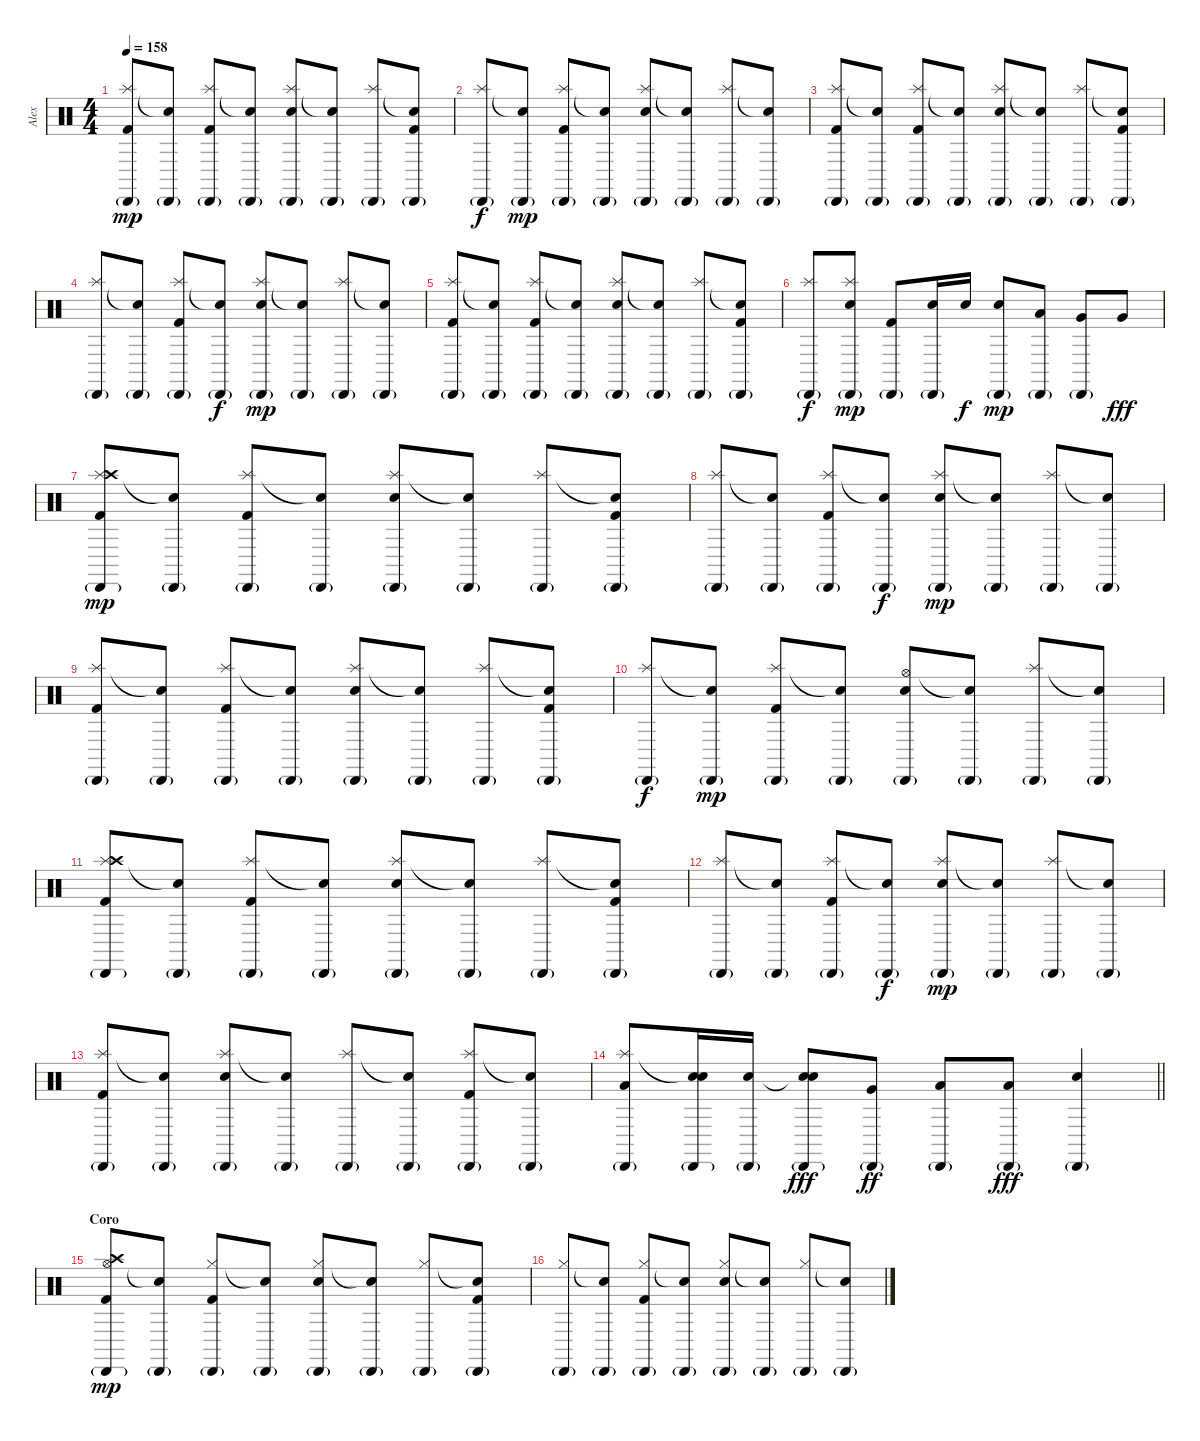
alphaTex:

\track ("Alex" "Alex") {instrument percussion}
\staff {score}
\articulation defaults
\ts (4 4)
\tempo 158
\clef neutral
\ks c
("Splash (hit)" "Kick (hit) 2" "Cabasa (hit)"{g}).8{dy mp} ("Snare (hit)"{t} "Cabasa (hit)"{g}).8 ("Splash (hit)" "Kick (hit) 2" "Cabasa (hit)"{g}).8 ("Snare (hit)"{t} "Cabasa (hit)"{g}).8 ("Splash (hit)" "Electric Snare (hit)" "Cabasa (hit)"{g}).8 ("Snare (hit)"{t} "Cabasa (hit)"{g}).8 ("Splash (hit)" "Cabasa (hit)"{g}).8 ("Snare (hit)"{t} "Kick (hit) 2" "Cabasa (hit)"{g}).8 |
("Splash (hit)" "Cabasa (hit)"{g}).8{dy f} ("Snare (hit)"{t} "Cabasa (hit)"{g}).8{dy mp} ("Splash (hit)" "Kick (hit) 2" "Cabasa (hit)"{g}).8 ("Snare (hit)"{t} "Cabasa (hit)"{g}).8 ("Splash (hit)" "Electric Snare (hit)" "Cabasa (hit)"{g}).8 ("Snare (hit)"{t} "Cabasa (hit)"{g}).8 ("Splash (hit)" "Cabasa (hit)"{g}).8 ("Snare (hit)"{t} "Cabasa (hit)"{g}).8 |
("Splash (hit)" "Kick (hit) 2" "Cabasa (hit)"{g}).8 ("Snare (hit)"{t} "Cabasa (hit)"{g}).8 ("Splash (hit)" "Kick (hit) 2" "Cabasa (hit)"{g}).8 ("Snare (hit)"{t} "Cabasa (hit)"{g}).8 ("Splash (hit)" "Electric Snare (hit)" "Cabasa (hit)"{g}).8 ("Snare (hit)"{t} "Cabasa (hit)"{g}).8 ("Splash (hit)" "Cabasa (hit)"{g}).8 ("Snare (hit)"{t} "Kick (hit) 2" "Cabasa (hit)"{g}).8 |
("Splash (hit)" "Cabasa (hit)"{g}).8 ("Snare (hit)"{t} "Cabasa (hit)"{g}).8 ("Splash (hit)" "Kick (hit) 2" "Cabasa (hit)"{g}).8 ("Snare (hit)"{t} "Cabasa (hit)"{g}).8{dy f} ("Splash (hit)" "Electric Snare (hit)" "Cabasa (hit)"{g}).8{dy mp} ("Snare (hit)"{t} "Cabasa (hit)"{g}).8 ("Splash (hit)" "Cabasa (hit)"{g}).8 ("Snare (hit)"{t} "Cabasa (hit)"{g}).8 |
("Splash (hit)" "Kick (hit) 2" "Cabasa (hit)"{g}).8 ("Snare (hit)"{t} "Cabasa (hit)"{g}).8 ("Splash (hit)" "Kick (hit) 2" "Cabasa (hit)"{g}).8 ("Snare (hit)"{t} "Cabasa (hit)"{g}).8 ("Splash (hit)" "Electric Snare (hit)" "Cabasa (hit)"{g}).8 ("Snare (hit)"{t} "Cabasa (hit)"{g}).8 ("Splash (hit)" "Cabasa (hit)"{g}).8 ("Snare (hit)"{t} "Kick (hit) 2" "Cabasa (hit)"{g}).8 |
("Splash (hit)" "Cabasa (hit)"{g}).8{dy f} ("Splash (hit)" "Electric Snare (hit)" "Cabasa (hit)"{g}).8{dy mp} ("Kick (hit) 2" "Cabasa (hit)"{g}).8 ("Electric Snare (hit)" "Cabasa (hit)"{g}).16 "Electric Snare (hit)".16{dy f} ("Electric Snare (hit)" "Cabasa (hit)"{g}).8{dy mp} ("Low Tom (hit)" "Cabasa (hit)"{g}).8 ("Very Low Tom (hit)" "Cabasa (hit)"{g}).8 "Very Low Tom (hit)".8{dy fff} |
("Splash (hit)" "Kick (hit) 2" "Crash high (hit)" "Cabasa (hit)"{g}).8{dy mp} ("Snare (hit)"{t} "Cabasa (hit)"{g}).8 ("Splash (hit)" "Kick (hit) 2" "Cabasa (hit)"{g}).8 ("Snare (hit)"{t} "Cabasa (hit)"{g}).8 ("Splash (hit)" "Electric Snare (hit)" "Cabasa (hit)"{g}).8 ("Snare (hit)"{t} "Cabasa (hit)"{g}).8 ("Splash (hit)" "Cabasa (hit)"{g}).8 ("Snare (hit)"{t} "Kick (hit) 2" "Cabasa (hit)"{g}).8 |
("Splash (hit)" "Cabasa (hit)"{g}).8 ("Snare (hit)"{t} "Cabasa (hit)"{g}).8 ("Splash (hit)" "Kick (hit) 2" "Cabasa (hit)"{g}).8 ("Snare (hit)"{t} "Cabasa (hit)"{g}).8{dy f} ("Splash (hit)" "Electric Snare (hit)" "Cabasa (hit)"{g}).8{dy mp} ("Snare (hit)"{t} "Cabasa (hit)"{g}).8 ("Splash (hit)" "Cabasa (hit)"{g}).8 ("Snare (hit)"{t} "Cabasa (hit)"{g}).8 |
("Splash (hit)" "Kick (hit) 2" "Cabasa (hit)"{g}).8 ("Snare (hit)"{t} "Cabasa (hit)"{g}).8 ("Splash (hit)" "Kick (hit) 2" "Cabasa (hit)"{g}).8 ("Snare (hit)"{t} "Cabasa (hit)"{g}).8 ("Splash (hit)" "Electric Snare (hit)" "Cabasa (hit)"{g}).8 ("Snare (hit)"{t} "Cabasa (hit)"{g}).8 ("Splash (hit)" "Cabasa (hit)"{g}).8 ("Snare (hit)"{t} "Kick (hit) 2" "Cabasa (hit)"{g}).8 |
("Splash (hit)" "Cabasa (hit)"{g}).8{dy f} ("Snare (hit)"{t} "Cabasa (hit)"{g}).8{dy mp} ("Splash (hit)" "Kick (hit) 2" "Cabasa (hit)"{g}).8 ("Snare (hit)"{t} "Cabasa (hit)"{g}).8 ("Hi-Hat (open)" "Electric Snare (hit)" "Cabasa (hit)"{g}).8 ("Snare (hit)"{t} "Cabasa (hit)"{g}).8 ("Splash (hit)" "Cabasa (hit)"{g}).8 ("Snare (hit)"{t} "Cabasa (hit)"{g}).8 |
("Splash (hit)" "Kick (hit) 2" "Crash high (hit)" "Cabasa (hit)"{g}).8 ("Snare (hit)"{t} "Cabasa (hit)"{g}).8 ("Splash (hit)" "Kick (hit) 2" "Cabasa (hit)"{g}).8 ("Snare (hit)"{t} "Cabasa (hit)"{g}).8 ("Splash (hit)" "Electric Snare (hit)" "Cabasa (hit)"{g}).8 ("Snare (hit)"{t} "Cabasa (hit)"{g}).8 ("Splash (hit)" "Cabasa (hit)"{g}).8 ("Snare (hit)"{t} "Kick (hit) 2" "Cabasa (hit)"{g}).8 |
("Splash (hit)" "Cabasa (hit)"{g}).8 ("Snare (hit)"{t} "Cabasa (hit)"{g}).8 ("Splash (hit)" "Kick (hit) 2" "Cabasa (hit)"{g}).8 ("Snare (hit)"{t} "Cabasa (hit)"{g}).8{dy f} ("Splash (hit)" "Electric Snare (hit)" "Cabasa (hit)"{g}).8{dy mp} ("Snare (hit)"{t} "Cabasa (hit)"{g}).8 ("Splash (hit)" "Cabasa (hit)"{g}).8 ("Snare (hit)"{t} "Cabasa (hit)"{g}).8 |
("Splash (hit)" "Kick (hit) 2" "Cabasa (hit)"{g}).8 ("Snare (hit)"{t} "Cabasa (hit)"{g}).8 ("Splash (hit)" "Electric Snare (hit)" "Cabasa (hit)"{g}).8 ("Snare (hit)"{t} "Cabasa (hit)"{g}).8 ("Splash (hit)" "Cabasa (hit)"{g}).8 ("Snare (hit)"{t} "Cabasa (hit)"{g}).8 ("Splash (hit)" "Kick (hit) 2" "Cabasa (hit)"{g}).8 ("Snare (hit)"{t} "Cabasa (hit)"{g}).8 |
\barLineRight lightlight
("Splash (hit)" "Low Tom (hit)" "Cabasa (hit)"{g}).8 ("Snare (hit)"{t} "Electric Snare (hit)" "Cabasa (hit)"{g}).16 ("Electric Snare (hit)" "Cabasa (hit)"{g}).16 ("Snare (hit)"{t} "Electric Snare (hit)" "Cabasa (hit)"{g}).8{dy fff} ("Very Low Tom (hit)" "Cabasa (hit)"{g}).8{dy ff} ("Low Tom (hit)" "Cabasa (hit)"{g}).8 ("Low Tom (hit)" "Cabasa (hit)"{g}).8{dy fff} ("Electric Snare (hit)" "Cabasa (hit)"{g}).4 |
\section ("" "Coro")
("Hi-Hat (open)" "Kick (hit) 2" "Crash high (hit)" "Cabasa (hit)"{g}).8{dy mp} ("Snare (hit)"{t} "Cabasa (hit)"{g}).8 ("Hi-Hat (closed)" "Kick (hit) 2" "Cabasa (hit)"{g}).8 ("Snare (hit)"{t} "Cabasa (hit)"{g}).8 ("Hi-Hat (closed)" "Electric Snare (hit)" "Cabasa (hit)"{g}).8 ("Snare (hit)"{t} "Cabasa (hit)"{g}).8 ("Hi-Hat (closed)" "Cabasa (hit)"{g}).8 ("Snare (hit)"{t} "Kick (hit) 2" "Cabasa (hit)"{g}).8 |
("Hi-Hat (closed)" "Cabasa (hit)"{g}).8 ("Snare (hit)"{t} "Cabasa (hit)"{g}).8 ("Hi-Hat (closed)" "Kick (hit) 2" "Cabasa (hit)"{g}).8 ("Snare (hit)"{t} "Cabasa (hit)"{g}).8 ("Hi-Hat (closed)" "Electric Snare (hit)" "Cabasa (hit)"{g}).8 ("Snare (hit)"{t} "Cabasa (hit)"{g}).8 ("Hi-Hat (closed)" "Cabasa (hit)"{g}).8 ("Snare (hit)"{t} "Cabasa (hit)"{g}).8
